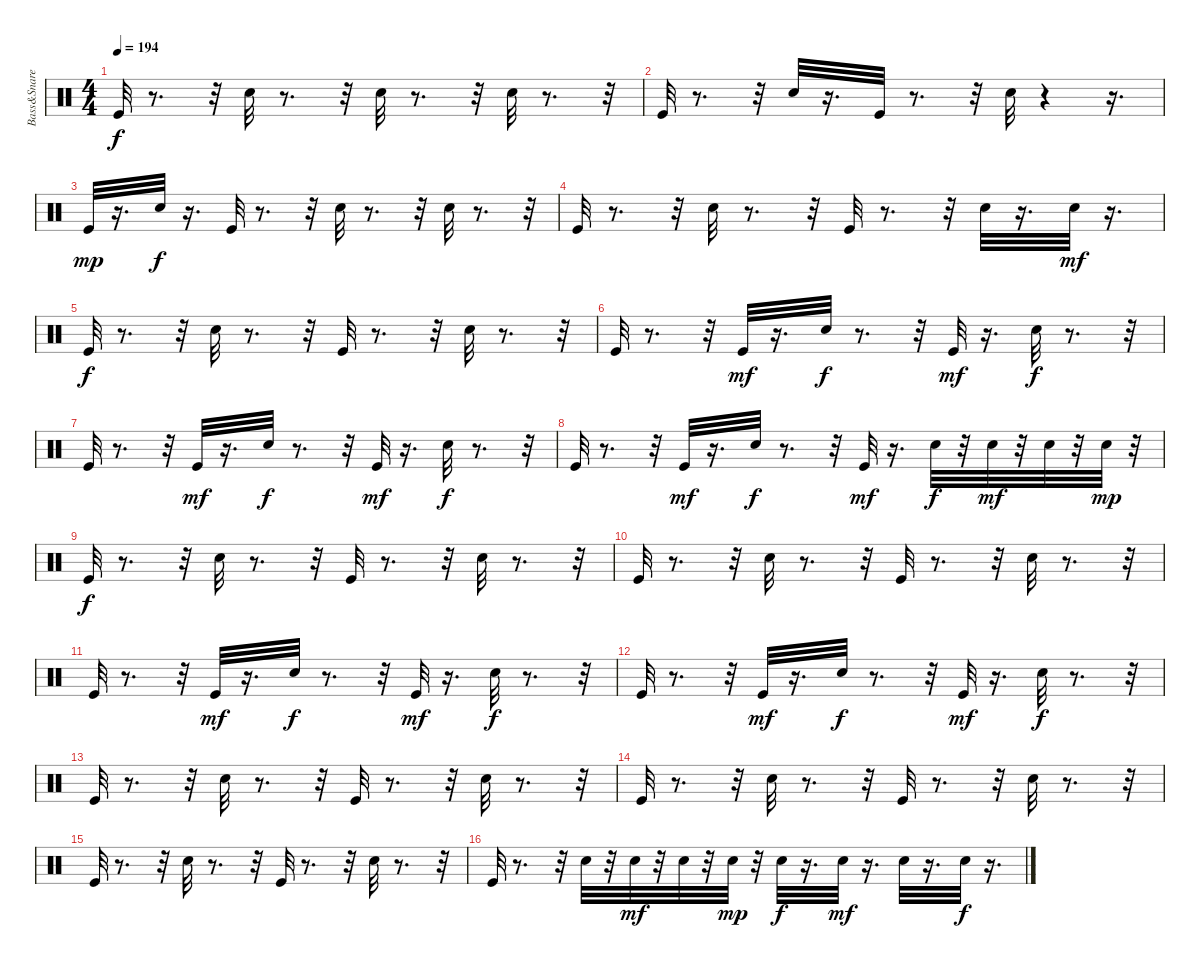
\track ("Bass&Snare" "Bass&Snare") {instrument percussion}
\staff {score}
\articulation defaults
\ts (4 4)
\tempo 194
\clef neutral
\ks c "Kick (hit)".32{dy f}
r.8{d} r.32 "Snare (hit) 2".32 r.8{d} r.32 "Snare (hit)".32 r.8{d} r.32 "Snare (hit) 2".32 r.8{d} r.32 |
"Kick (hit)".32 r.8{d} r.32 "Snare (hit) 2".32 r.16{d} "Kick (hit)".32 r.8{d} r.32 "Snare (hit) 2".32 r.4 r.16{d} |
"Kick (hit)".32{dy mp} r.16{d} "Snare (hit) 2".32{dy f} r.16{d} "Kick (hit)".32 r.8{d} r.32 "Snare (hit) 2".32 r.8{d} r.32 "Snare (hit) 2".32 r.8{d} r.32 |
"Kick (hit)".32 r.8{d} r.32 "Snare (hit) 2".32 r.8{d} r.32 "Kick (hit)".32 r.8{d} r.32 "Snare (hit) 2".32 r.16{d} "Snare (hit) 2".32{dy mf} r.16{d} |
"Kick (hit)".32{dy f} r.8{d} r.32 "Snare (hit) 2".32 r.8{d} r.32 "Kick (hit)".32 r.8{d} r.32 "Snare (hit) 2".32 r.8{d} r.32 |
"Kick (hit)".32 r.8{d} r.32 "Kick (hit)".32{dy mf} r.16{d} "Snare (hit) 2".32{dy f} r.8{d} r.32 "Kick (hit)".32{dy mf} r.16{d} "Snare (hit) 2".32{dy f} r.8{d} r.32 |
"Kick (hit)".32 r.8{d} r.32 "Kick (hit)".32{dy mf} r.16{d} "Snare (hit) 2".32{dy f} r.8{d} r.32 "Kick (hit)".32{dy mf} r.16{d} "Snare (hit) 2".32{dy f} r.8{d} r.32 |
"Kick (hit)".32 r.8{d} r.32 "Kick (hit)".32{dy mf} r.16{d} "Snare (hit) 2".32{dy f} r.8{d} r.32 "Kick (hit)".32{dy mf} r.16{d} "Snare (hit) 2".32{dy f} r.32 "Snare (hit) 2".32{dy mf} r.32 "Snare (hit) 2".32 r.32 "Snare (hit) 2".32{dy mp} r.32 |
"Kick (hit)".32{dy f} r.8{d} r.32 "Snare (hit) 2".32 r.8{d} r.32 "Kick (hit)".32 r.8{d} r.32 "Snare (hit) 2".32 r.8{d} r.32 |
"Kick (hit)".32 r.8{d} r.32 "Snare (hit) 2".32 r.8{d} r.32 "Kick (hit)".32 r.8{d} r.32 "Snare (hit) 2".32 r.8{d} r.32 |
"Kick (hit)".32 r.8{d} r.32 "Kick (hit)".32{dy mf} r.16{d} "Snare (hit) 2".32{dy f} r.8{d} r.32 "Kick (hit)".32{dy mf} r.16{d} "Snare (hit) 2".32{dy f} r.8{d} r.32 |
"Kick (hit)".32 r.8{d} r.32 "Kick (hit)".32{dy mf} r.16{d} "Snare (hit) 2".32{dy f} r.8{d} r.32 "Kick (hit)".32{dy mf} r.16{d} "Snare (hit) 2".32{dy f} r.8{d} r.32 |
"Kick (hit)".32 r.8{d} r.32 "Snare (hit) 2".32 r.8{d} r.32 "Kick (hit)".32 r.8{d} r.32 "Snare (hit) 2".32 r.8{d} r.32 |
"Kick (hit)".32 r.8{d} r.32 "Snare (hit) 2".32 r.8{d} r.32 "Kick (hit)".32 r.8{d} r.32 "Snare (hit) 2".32 r.8{d} r.32 |
"Kick (hit)".32 r.8{d} r.32 "Snare (hit) 2".32 r.8{d} r.32 "Kick (hit)".32 r.8{d} r.32 "Snare (hit) 2".32 r.8{d} r.32 |
"Kick (hit)".32 r.8{d} r.32 "Snare (hit) 2".32 r.32 "Snare (hit) 2".32{dy mf} r.32 "Snare (hit) 2".32 r.32 "Snare (hit) 2".32{dy mp} r.32 "Snare (hit) 2".32{dy f} r.16{d} "Snare (hit) 2".32{dy mf} r.16{d} "Snare (hit) 2".32 r.16{d} "Snare (hit) 2".32{dy f} r.16{d}
